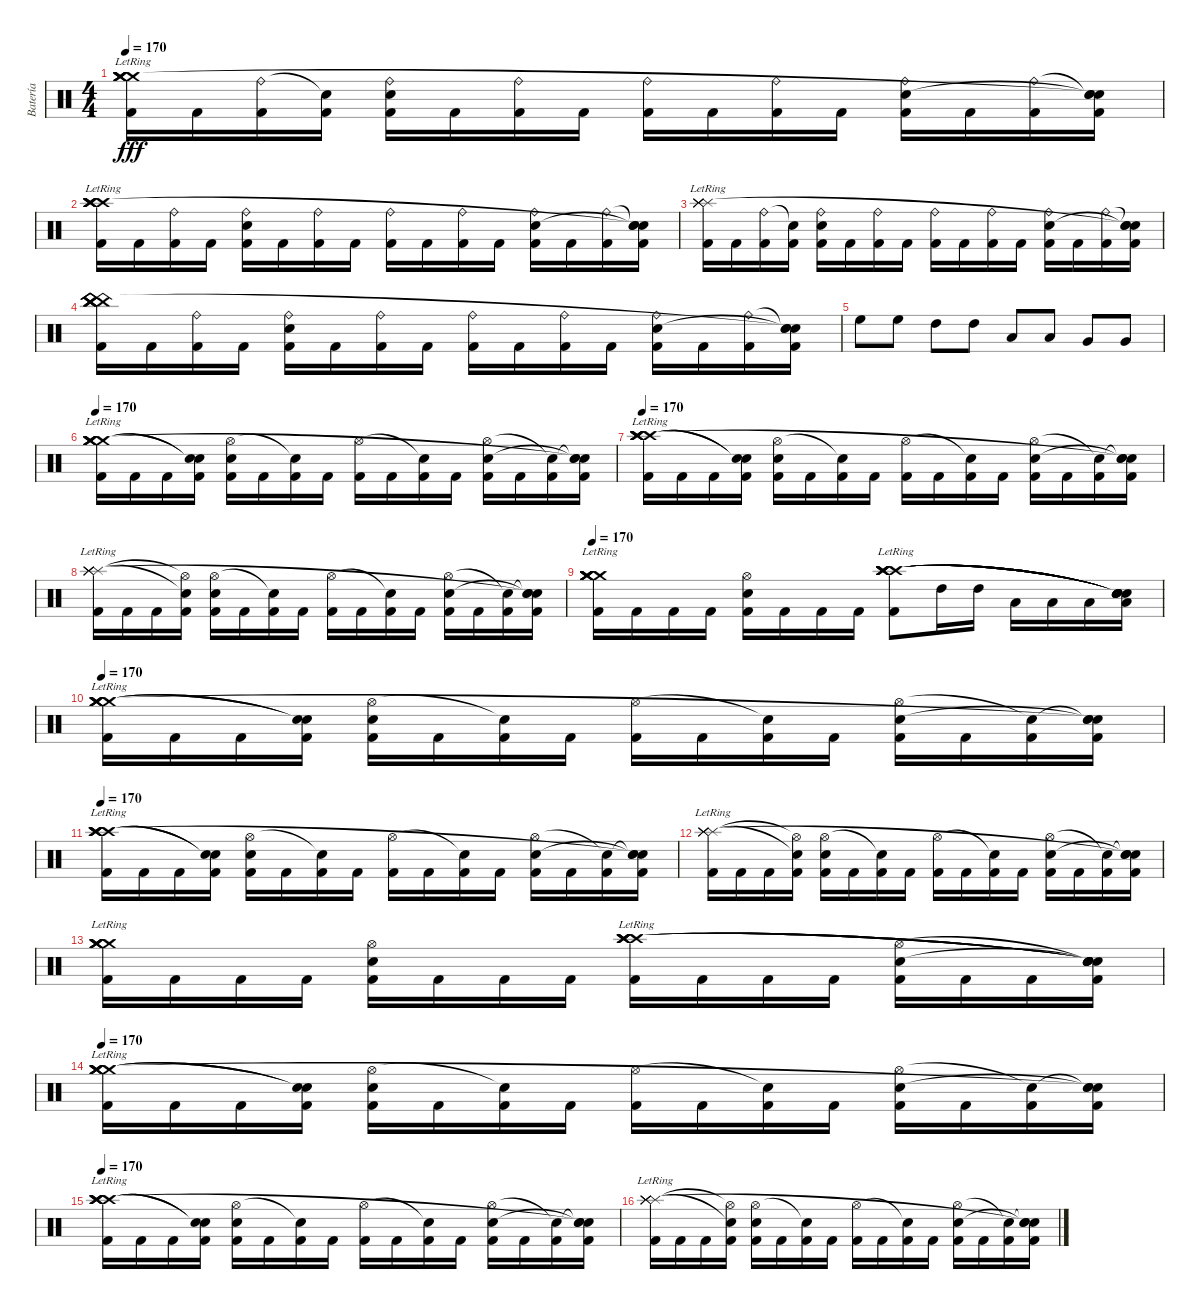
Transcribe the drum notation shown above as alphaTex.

\track ("Batería" "Batería") {instrument percussion}
\staff {score}
\articulation defaults
\ts (4 4)
\tempo 170
\clef neutral
\ks c
("Kick (hit) 2" "Crash medium (hit)"{lr} "Crash medium (hit)"{lr} "Crash medium (hit)"{lr} "Crash medium (hit)"{lr} "Crash medium (hit)"{lr}).16{dy fff} "Kick (hit) 2".16 ("Kick (hit) 2" "Ride (bell)").16 ("Kick (hit) 2" "Snare (hit)"{t}).16 ("Kick (hit) 2" "Ride (bell)" "Electric Snare (hit)").16 "Kick (hit) 2".16 ("Kick (hit) 2" "Ride (bell)").16 "Kick (hit) 2".16 ("Kick (hit) 2" "Ride (bell)").16 "Kick (hit) 2".16 ("Kick (hit) 2" "Ride (bell)").16 "Kick (hit) 2".16 ("Kick (hit) 2" "Ride (bell)" "Electric Snare (hit)").16 "Kick (hit) 2".16 ("Kick (hit) 2" "Ride (bell)").16 ("Kick (hit) 2" "Snare (hit)"{t} "Snare (hit)"{t} "Snare (hit)"{t}).16 |
("Kick (hit) 2" "Crash high (hit)"{lr} "Crash high (hit)"{lr} "Crash high (hit)"{lr} "Crash high (hit)"{lr} "Crash high (hit)"{lr}).16 "Kick (hit) 2".16 ("Kick (hit) 2" "Ride (bell)").16 "Kick (hit) 2".16 ("Kick (hit) 2" "Ride (bell)" "Electric Snare (hit)").16 "Kick (hit) 2".16 ("Kick (hit) 2" "Ride (bell)").16 "Kick (hit) 2".16 ("Kick (hit) 2" "Ride (bell)").16 "Kick (hit) 2".16 ("Kick (hit) 2" "Ride (bell)").16 "Kick (hit) 2".16 ("Kick (hit) 2" "Ride (bell)" "Electric Snare (hit)").16 "Kick (hit) 2".16 ("Kick (hit) 2" "Ride (bell)").16 ("Kick (hit) 2" "Snare (hit)"{t} "Snare (hit)"{t} "Snare (hit)"{t}).16 |
("Kick (hit) 2" "Splash (hit)"{lr} "Splash (hit)"{lr} "Splash (hit)"{lr} "Splash (hit)"{lr} "Splash (hit)"{lr}).16 "Kick (hit) 2".16 ("Kick (hit) 2" "Ride (bell)").16 ("Kick (hit) 2" "Snare (hit)"{t}).16 ("Kick (hit) 2" "Ride (bell)" "Electric Snare (hit)").16 "Kick (hit) 2".16 ("Kick (hit) 2" "Ride (bell)").16 "Kick (hit) 2".16 ("Kick (hit) 2" "Ride (bell)").16 "Kick (hit) 2".16 ("Kick (hit) 2" "Ride (bell)").16 "Kick (hit) 2".16 ("Kick (hit) 2" "Ride (bell)" "Electric Snare (hit)").16 "Kick (hit) 2".16 ("Kick (hit) 2" "Ride (bell)").16 ("Kick (hit) 2" "Snare (hit)"{t} "Snare (hit)"{t} "Snare (hit)"{t}).16 |
("Kick (hit) 2" "China (hit)" "China (hit)" "China (hit)" "China (hit)" "China (hit)").16 "Kick (hit) 2".16 ("Kick (hit) 2" "Ride (bell)").16 "Kick (hit) 2".16 ("Kick (hit) 2" "Ride (bell)" "Electric Snare (hit)").16 "Kick (hit) 2".16 ("Kick (hit) 2" "Ride (bell)").16 "Kick (hit) 2".16 ("Kick (hit) 2" "Ride (bell)").16 "Kick (hit) 2".16 ("Kick (hit) 2" "Ride (bell)").16 "Kick (hit) 2".16 ("Kick (hit) 2" "Ride (bell)" "Electric Snare (hit)").16 "Kick (hit) 2".16 ("Kick (hit) 2" "Ride (bell)").16 ("Kick (hit) 2" "Snare (hit)"{t} "Snare (hit)"{t} "Snare (hit)"{t}).16 |
"High Floor Tom (hit)".8 "High Floor Tom (hit)".8 "High Tom (hit)".8 "High Tom (hit)".8 "Low Tom (hit)".8 "Low Tom (hit)".8 "Very Low Tom (hit)".8 "Very Low Tom (hit)".8 |
\tempo 170
("Kick (hit) 2" "Crash medium (hit)"{lr} "Crash medium (hit)"{lr} "Crash medium (hit)"{lr} "Crash medium (hit)"{lr} "Crash medium (hit)"{lr}).16 "Kick (hit) 2".16 "Kick (hit) 2".16 ("Kick (hit) 2" "Snare (hit)"{t} "Snare (hit)"{t}).16 ("Kick (hit) 2" "Hi-Hat (open)" "Electric Snare (hit)").16 "Kick (hit) 2".16 ("Kick (hit) 2" "Snare (hit)"{t}).16 "Kick (hit) 2".16 ("Kick (hit) 2" "Hi-Hat (open)").16 "Kick (hit) 2".16 ("Kick (hit) 2" "Snare (hit)"{t}).16 "Kick (hit) 2".16 ("Kick (hit) 2" "Hi-Hat (open)" "Electric Snare (hit)").16 "Kick (hit) 2".16 ("Kick (hit) 2" "Snare (hit)"{t}).16 ("Kick (hit) 2" "Snare (hit)"{t} "Snare (hit)"{t} "Snare (hit)"{t}).16 |
\tempo 170
("Kick (hit) 2" "Crash high (hit)"{lr} "Crash high (hit)"{lr} "Crash high (hit)"{lr} "Crash high (hit)"{lr} "Crash high (hit)"{lr}).16 "Kick (hit) 2".16 "Kick (hit) 2".16 ("Kick (hit) 2" "Snare (hit)"{t} "Snare (hit)"{t}).16 ("Kick (hit) 2" "Hi-Hat (open)" "Electric Snare (hit)").16 "Kick (hit) 2".16 ("Kick (hit) 2" "Snare (hit)"{t}).16 "Kick (hit) 2".16 ("Kick (hit) 2" "Hi-Hat (open)").16 "Kick (hit) 2".16 ("Kick (hit) 2" "Snare (hit)"{t}).16 "Kick (hit) 2".16 ("Kick (hit) 2" "Hi-Hat (open)" "Electric Snare (hit)").16 "Kick (hit) 2".16 ("Kick (hit) 2" "Snare (hit)"{t}).16 ("Kick (hit) 2" "Snare (hit)"{t} "Snare (hit)"{t} "Snare (hit)"{t}).16 |
("Kick (hit) 2"{lr} "Splash (hit)"{lr} "Splash (hit)"{lr} "Splash (hit)"{lr} "Splash (hit)"{lr} "Splash (hit)"{lr}).16 "Kick (hit) 2".16 "Kick (hit) 2".16 ("Kick (hit) 2" "Hi-Hat (open)"{t} "Snare (hit)"{t}).16 ("Kick (hit) 2" "Hi-Hat (open)" "Electric Snare (hit)").16 "Kick (hit) 2".16 ("Kick (hit) 2" "Snare (hit)"{t}).16 "Kick (hit) 2".16 ("Kick (hit) 2" "Hi-Hat (open)").16 "Kick (hit) 2".16 ("Kick (hit) 2" "Snare (hit)"{t}).16 "Kick (hit) 2".16 ("Kick (hit) 2" "Hi-Hat (open)" "Electric Snare (hit)").16 "Kick (hit) 2".16 ("Kick (hit) 2" "Snare (hit)"{t}).16 ("Kick (hit) 2" "Snare (hit)"{t} "Snare (hit)"{t} "Snare (hit)"{t}).16 |
\tempo 170
("Kick (hit) 2" "Crash medium (hit)"{lr} "Crash medium (hit)"{lr} "Crash medium (hit)"{lr} "Crash medium (hit)"{lr} "Crash medium (hit)"{lr}).16 "Kick (hit) 2".16 "Kick (hit) 2".16 "Kick (hit) 2".16 ("Kick (hit) 2" "Hi-Hat (open)" "Electric Snare (hit)").16 "Kick (hit) 2".16 "Kick (hit) 2".16 "Kick (hit) 2".16 ("Kick (hit) 2"{lr} "Crash high (hit)"{lr} "Crash high (hit)"{lr} "Crash high (hit)"{lr} "Crash high (hit)"{lr} "Crash high (hit)"{lr}).8 "High Tom (hit)".16 "High Tom (hit)".16 "Low Tom (hit)".16 "Low Tom (hit)".16 "Low Floor Tom (hit)".16 ("Low Floor Tom (hit)" "Snare (hit)"{t} "Snare (hit)"{t} "Snare (hit)"{t} "Snare (hit)"{t} "Snare (hit)"{t}).16 |
\tempo 170
("Kick (hit) 2" "Crash medium (hit)"{lr} "Crash medium (hit)"{lr} "Crash medium (hit)"{lr} "Crash medium (hit)"{lr} "Crash medium (hit)"{lr}).16 "Kick (hit) 2".16 "Kick (hit) 2".16 ("Kick (hit) 2" "Snare (hit)"{t} "Snare (hit)"{t}).16 ("Kick (hit) 2" "Hi-Hat (open)" "Electric Snare (hit)").16 "Kick (hit) 2".16 ("Kick (hit) 2" "Snare (hit)"{t}).16 "Kick (hit) 2".16 ("Kick (hit) 2" "Hi-Hat (open)").16 "Kick (hit) 2".16 ("Kick (hit) 2" "Snare (hit)"{t}).16 "Kick (hit) 2".16 ("Kick (hit) 2" "Hi-Hat (open)" "Electric Snare (hit)").16 "Kick (hit) 2".16 ("Kick (hit) 2" "Snare (hit)"{t}).16 ("Kick (hit) 2" "Snare (hit)"{t} "Snare (hit)"{t} "Snare (hit)"{t}).16 |
\tempo 170
("Kick (hit) 2" "Crash high (hit)"{lr} "Crash high (hit)"{lr} "Crash high (hit)"{lr} "Crash high (hit)"{lr} "Crash high (hit)"{lr}).16 "Kick (hit) 2".16 "Kick (hit) 2".16 ("Kick (hit) 2" "Snare (hit)"{t} "Snare (hit)"{t}).16 ("Kick (hit) 2" "Hi-Hat (open)" "Electric Snare (hit)").16 "Kick (hit) 2".16 ("Kick (hit) 2" "Snare (hit)"{t}).16 "Kick (hit) 2".16 ("Kick (hit) 2" "Hi-Hat (open)").16 "Kick (hit) 2".16 ("Kick (hit) 2" "Snare (hit)"{t}).16 "Kick (hit) 2".16 ("Kick (hit) 2" "Hi-Hat (open)" "Electric Snare (hit)").16 "Kick (hit) 2".16 ("Kick (hit) 2" "Snare (hit)"{t}).16 ("Kick (hit) 2" "Snare (hit)"{t} "Snare (hit)"{t} "Snare (hit)"{t}).16 |
("Kick (hit) 2"{lr} "Splash (hit)"{lr} "Splash (hit)"{lr} "Splash (hit)"{lr} "Splash (hit)"{lr} "Splash (hit)"{lr}).16 "Kick (hit) 2".16 "Kick (hit) 2".16 ("Kick (hit) 2" "Hi-Hat (open)"{t} "Snare (hit)"{t}).16 ("Kick (hit) 2" "Hi-Hat (open)" "Electric Snare (hit)").16 "Kick (hit) 2".16 ("Kick (hit) 2" "Snare (hit)"{t}).16 "Kick (hit) 2".16 ("Kick (hit) 2" "Hi-Hat (open)").16 "Kick (hit) 2".16 ("Kick (hit) 2" "Snare (hit)"{t}).16 "Kick (hit) 2".16 ("Kick (hit) 2" "Hi-Hat (open)" "Electric Snare (hit)").16 "Kick (hit) 2".16 ("Kick (hit) 2" "Snare (hit)"{t}).16 ("Kick (hit) 2" "Snare (hit)"{t} "Snare (hit)"{t} "Snare (hit)"{t}).16 |
("Kick (hit) 2" "Crash medium (hit)"{lr} "Crash medium (hit)"{lr} "Crash medium (hit)"{lr} "Crash medium (hit)"{lr} "Crash medium (hit)"{lr}).16 "Kick (hit) 2".16 "Kick (hit) 2".16 "Kick (hit) 2".16 ("Kick (hit) 2" "Hi-Hat (open)" "Electric Snare (hit)").16 "Kick (hit) 2".16 "Kick (hit) 2".16 "Kick (hit) 2".16 ("Kick (hit) 2"{lr} "Crash high (hit)"{lr} "Crash high (hit)"{lr} "Crash high (hit)"{lr} "Crash high (hit)"{lr} "Crash high (hit)"{lr}).16 "Kick (hit) 2".16 "Kick (hit) 2".16 "Kick (hit) 2".16 ("Kick (hit) 2" "Hi-Hat (open)" "Electric Snare (hit)").16 "Kick (hit) 2".16 "Kick (hit) 2".16 ("Kick (hit) 2" "Snare (hit)"{t} "Snare (hit)"{t} "Snare (hit)"{t} "Snare (hit)"{t} "Snare (hit)"{t}).16 |
\tempo 170
("Kick (hit) 2" "Crash medium (hit)"{lr} "Crash medium (hit)"{lr} "Crash medium (hit)"{lr} "Crash medium (hit)"{lr} "Crash medium (hit)"{lr}).16 "Kick (hit) 2".16 "Kick (hit) 2".16 ("Kick (hit) 2" "Snare (hit)"{t} "Snare (hit)"{t}).16 ("Kick (hit) 2" "Hi-Hat (open)" "Electric Snare (hit)").16 "Kick (hit) 2".16 ("Kick (hit) 2" "Snare (hit)"{t}).16 "Kick (hit) 2".16 ("Kick (hit) 2" "Hi-Hat (open)").16 "Kick (hit) 2".16 ("Kick (hit) 2" "Snare (hit)"{t}).16 "Kick (hit) 2".16 ("Kick (hit) 2" "Hi-Hat (open)" "Electric Snare (hit)").16 "Kick (hit) 2".16 ("Kick (hit) 2" "Snare (hit)"{t}).16 ("Kick (hit) 2" "Snare (hit)"{t} "Snare (hit)"{t} "Snare (hit)"{t}).16 |
\tempo 170
("Kick (hit) 2" "Crash high (hit)"{lr} "Crash high (hit)"{lr} "Crash high (hit)"{lr} "Crash high (hit)"{lr} "Crash high (hit)"{lr}).16 "Kick (hit) 2".16 "Kick (hit) 2".16 ("Kick (hit) 2" "Snare (hit)"{t} "Snare (hit)"{t}).16 ("Kick (hit) 2" "Hi-Hat (open)" "Electric Snare (hit)").16 "Kick (hit) 2".16 ("Kick (hit) 2" "Snare (hit)"{t}).16 "Kick (hit) 2".16 ("Kick (hit) 2" "Hi-Hat (open)").16 "Kick (hit) 2".16 ("Kick (hit) 2" "Snare (hit)"{t}).16 "Kick (hit) 2".16 ("Kick (hit) 2" "Hi-Hat (open)" "Electric Snare (hit)").16 "Kick (hit) 2".16 ("Kick (hit) 2" "Snare (hit)"{t}).16 ("Kick (hit) 2" "Snare (hit)"{t} "Snare (hit)"{t} "Snare (hit)"{t}).16 |
("Kick (hit) 2"{lr} "Splash (hit)"{lr} "Splash (hit)"{lr} "Splash (hit)"{lr} "Splash (hit)"{lr} "Splash (hit)"{lr}).16 "Kick (hit) 2".16 "Kick (hit) 2".16 ("Kick (hit) 2" "Hi-Hat (open)"{t} "Snare (hit)"{t}).16 ("Kick (hit) 2" "Hi-Hat (open)" "Electric Snare (hit)").16 "Kick (hit) 2".16 ("Kick (hit) 2" "Snare (hit)"{t}).16 "Kick (hit) 2".16 ("Kick (hit) 2" "Hi-Hat (open)").16 "Kick (hit) 2".16 ("Kick (hit) 2" "Snare (hit)"{t}).16 "Kick (hit) 2".16 ("Kick (hit) 2" "Hi-Hat (open)" "Electric Snare (hit)").16 "Kick (hit) 2".16 ("Kick (hit) 2" "Snare (hit)"{t}).16 ("Kick (hit) 2" "Snare (hit)"{t} "Snare (hit)"{t} "Snare (hit)"{t}).16
